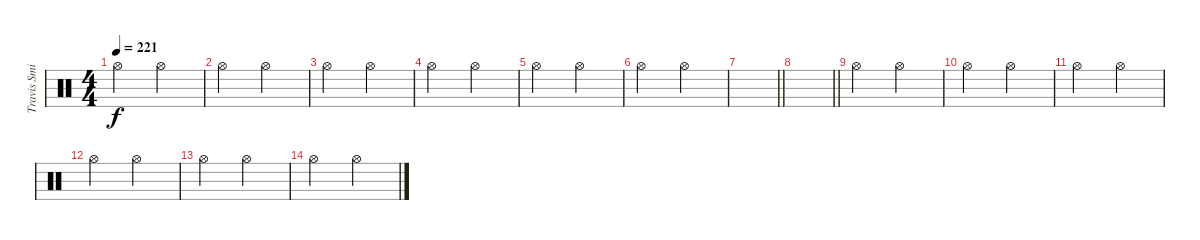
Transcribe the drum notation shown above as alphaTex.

\track ("Travis Smith" "Travis Smi") {instrument percussion}
\staff {score}
\articulation defaults
\ts (4 4)
\tempo 221
\clef neutral
\ks c "Hi-Hat (open)".2{dy f} "Hi-Hat (open)".2
|
"Hi-Hat (open)".2 "Hi-Hat (open)".2 |
"Hi-Hat (open)".2 "Hi-Hat (open)".2 |
"Hi-Hat (open)".2 "Hi-Hat (open)".2 |
"Hi-Hat (open)".2 "Hi-Hat (open)".2 |
"Hi-Hat (open)".2 "Hi-Hat (open)".2 |
\barLineRight lightlight
|
\barLineRight lightlight
|
"Hi-Hat (open)".2 "Hi-Hat (open)".2 |
"Hi-Hat (open)".2 "Hi-Hat (open)".2 |
"Hi-Hat (open)".2 "Hi-Hat (open)".2 |
"Hi-Hat (open)".2 "Hi-Hat (open)".2 |
"Hi-Hat (open)".2 "Hi-Hat (open)".2 |
"Hi-Hat (open)".2 "Hi-Hat (open)".2
